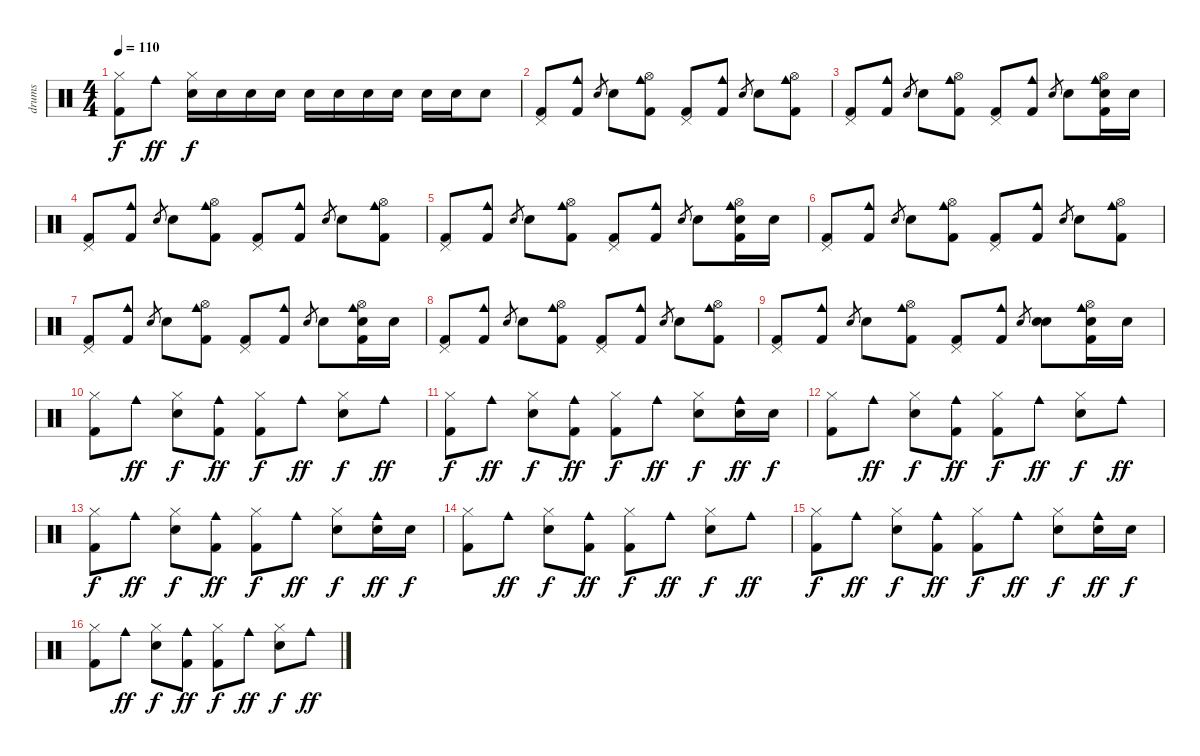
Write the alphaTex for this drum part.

\track ("drums" "drums") {instrument percussion}
\staff {score}
\articulation defaults
\ts (4 4)
\tempo 110
\clef neutral
\ks aminor
("Hi-Hat (closed)" "Kick (hit) 2").8{dy f} "Cowbell medium (hit)".8{dy ff} ("Hi-Hat (closed)" "Snare (hit) 2").16{dy f} "Snare (hit) 2".16 "Snare (hit) 2".16 "Snare (hit) 2".16 "Snare (hit) 2".16 "Snare (hit) 2".16 "Snare (hit) 2".16 "Snare (hit) 2".16 "Snare (hit) 2".16 "Snare (hit) 2".16 "Snare (hit) 2".8 |
("Pedal Hi-Hat (hit)" "Kick (hit) 2").8 ("Cowbell medium (hit)" "Kick (hit) 2").8 "Hand Clap (hit)".8{gr} "Hand Clap (hit)".8 ("Hi-Hat (open)" "Cowbell medium (hit)" "Kick (hit) 2").8 ("Pedal Hi-Hat (hit)" "Kick (hit) 2").8 ("Cowbell medium (hit)" "Kick (hit) 2").8 "Hand Clap (hit)".8{gr} "Hand Clap (hit)".8 ("Hi-Hat (open)" "Cowbell medium (hit)" "Kick (hit) 2").8 |
("Pedal Hi-Hat (hit)" "Kick (hit) 2").8 ("Cowbell medium (hit)" "Kick (hit) 2").8 "Hand Clap (hit)".8{gr} "Hand Clap (hit)".8 ("Hi-Hat (open)" "Cowbell medium (hit)" "Kick (hit) 2").8 ("Pedal Hi-Hat (hit)" "Kick (hit) 2").8 ("Cowbell medium (hit)" "Kick (hit) 2").8 "Hand Clap (hit)".8{gr} "Hand Clap (hit)".8 ("Hi-Hat (open)" "Cowbell medium (hit)" "Snare (hit) 2" "Kick (hit) 2").16 "Snare (hit) 2".16 |
("Pedal Hi-Hat (hit)" "Kick (hit) 2").8 ("Cowbell medium (hit)" "Kick (hit) 2").8 "Hand Clap (hit)".8{gr} "Hand Clap (hit)".8 ("Hi-Hat (open)" "Cowbell medium (hit)" "Kick (hit) 2").8 ("Pedal Hi-Hat (hit)" "Kick (hit) 2").8 ("Cowbell medium (hit)" "Kick (hit) 2").8 "Hand Clap (hit)".8{gr} "Hand Clap (hit)".8 ("Hi-Hat (open)" "Cowbell medium (hit)" "Kick (hit) 2").8 |
("Pedal Hi-Hat (hit)" "Kick (hit) 2").8 ("Cowbell medium (hit)" "Kick (hit) 2").8 "Hand Clap (hit)".8{gr} "Hand Clap (hit)".8 ("Hi-Hat (open)" "Cowbell medium (hit)" "Kick (hit) 2").8 ("Pedal Hi-Hat (hit)" "Kick (hit) 2").8 ("Cowbell medium (hit)" "Kick (hit) 2").8 "Hand Clap (hit)".8{gr} "Hand Clap (hit)".8 ("Hi-Hat (open)" "Cowbell medium (hit)" "Snare (hit) 2" "Kick (hit) 2").16 "Snare (hit) 2".16 |
("Pedal Hi-Hat (hit)" "Kick (hit) 2").8 ("Cowbell medium (hit)" "Kick (hit) 2").8 "Hand Clap (hit)".8{gr} "Hand Clap (hit)".8 ("Hi-Hat (open)" "Cowbell medium (hit)" "Kick (hit) 2").8 ("Pedal Hi-Hat (hit)" "Kick (hit) 2").8 ("Cowbell medium (hit)" "Kick (hit) 2").8 "Hand Clap (hit)".8{gr} "Hand Clap (hit)".8 ("Hi-Hat (open)" "Cowbell medium (hit)" "Kick (hit) 2").8 |
("Pedal Hi-Hat (hit)" "Kick (hit) 2").8 ("Cowbell medium (hit)" "Kick (hit) 2").8 "Hand Clap (hit)".8{gr} "Hand Clap (hit)".8 ("Hi-Hat (open)" "Cowbell medium (hit)" "Kick (hit) 2").8 ("Pedal Hi-Hat (hit)" "Kick (hit) 2").8 ("Cowbell medium (hit)" "Kick (hit) 2").8 "Hand Clap (hit)".8{gr} "Hand Clap (hit)".8 ("Hi-Hat (open)" "Cowbell medium (hit)" "Snare (hit) 2" "Kick (hit) 2").16 "Snare (hit) 2".16 |
("Pedal Hi-Hat (hit)" "Kick (hit) 2").8 ("Cowbell medium (hit)" "Kick (hit) 2").8 "Hand Clap (hit)".8{gr} "Hand Clap (hit)".8 ("Hi-Hat (open)" "Cowbell medium (hit)" "Kick (hit) 2").8 ("Pedal Hi-Hat (hit)" "Kick (hit) 2").8 ("Cowbell medium (hit)" "Kick (hit) 2").8 "Hand Clap (hit)".8{gr} "Hand Clap (hit)".8 ("Hi-Hat (open)" "Cowbell medium (hit)" "Kick (hit) 2").8 |
("Pedal Hi-Hat (hit)" "Kick (hit) 2").8 ("Cowbell medium (hit)" "Kick (hit) 2").8 "Hand Clap (hit)".8{gr} "Hand Clap (hit)".8 ("Hi-Hat (open)" "Cowbell medium (hit)" "Kick (hit) 2").8 ("Pedal Hi-Hat (hit)" "Kick (hit) 2").8 ("Cowbell medium (hit)" "Kick (hit) 2").8 "Hand Clap (hit)".8{gr} ("Hand Clap (hit)" "Snare (hit) 2").8 ("Hi-Hat (open)" "Cowbell medium (hit)" "Snare (hit) 2" "Kick (hit) 2").16 "Snare (hit) 2".16 |
("Hi-Hat (closed)" "Kick (hit) 2").8 "Cowbell medium (hit)".8{dy ff} ("Hi-Hat (closed)" "Snare (hit) 2").8{dy f} ("Cowbell medium (hit)" "Kick (hit) 2").8{dy ff} ("Hi-Hat (closed)" "Kick (hit) 2").8{dy f} "Cowbell medium (hit)".8{dy ff} ("Hi-Hat (closed)" "Snare (hit) 2").8{dy f} "Cowbell medium (hit)".8{dy ff} |
("Hi-Hat (closed)" "Kick (hit) 2").8{dy f} "Cowbell medium (hit)".8{dy ff} ("Hi-Hat (closed)" "Snare (hit) 2").8{dy f} ("Cowbell medium (hit)" "Kick (hit) 2").8{dy ff} ("Hi-Hat (closed)" "Kick (hit) 2").8{dy f} "Cowbell medium (hit)".8{dy ff} ("Hi-Hat (closed)" "Snare (hit) 2").8{dy f} ("Cowbell medium (hit)" "Snare (hit) 2").16{dy ff} "Snare (hit) 2".16{dy f} |
("Hi-Hat (closed)" "Kick (hit) 2").8 "Cowbell medium (hit)".8{dy ff} ("Hi-Hat (closed)" "Snare (hit) 2").8{dy f} ("Cowbell medium (hit)" "Kick (hit) 2").8{dy ff} ("Hi-Hat (closed)" "Kick (hit) 2").8{dy f} "Cowbell medium (hit)".8{dy ff} ("Hi-Hat (closed)" "Snare (hit) 2").8{dy f} "Cowbell medium (hit)".8{dy ff} |
("Hi-Hat (closed)" "Kick (hit) 2").8{dy f} "Cowbell medium (hit)".8{dy ff} ("Hi-Hat (closed)" "Snare (hit) 2").8{dy f} ("Cowbell medium (hit)" "Kick (hit) 2").8{dy ff} ("Hi-Hat (closed)" "Kick (hit) 2").8{dy f} "Cowbell medium (hit)".8{dy ff} ("Hi-Hat (closed)" "Snare (hit) 2").8{dy f} ("Cowbell medium (hit)" "Snare (hit) 2").16{dy ff} "Snare (hit) 2".16{dy f} |
("Hi-Hat (closed)" "Kick (hit) 2").8 "Cowbell medium (hit)".8{dy ff} ("Hi-Hat (closed)" "Snare (hit) 2").8{dy f} ("Cowbell medium (hit)" "Kick (hit) 2").8{dy ff} ("Hi-Hat (closed)" "Kick (hit) 2").8{dy f} "Cowbell medium (hit)".8{dy ff} ("Hi-Hat (closed)" "Snare (hit) 2").8{dy f} "Cowbell medium (hit)".8{dy ff} |
("Hi-Hat (closed)" "Kick (hit) 2").8{dy f} "Cowbell medium (hit)".8{dy ff} ("Hi-Hat (closed)" "Snare (hit) 2").8{dy f} ("Cowbell medium (hit)" "Kick (hit) 2").8{dy ff} ("Hi-Hat (closed)" "Kick (hit) 2").8{dy f} "Cowbell medium (hit)".8{dy ff} ("Hi-Hat (closed)" "Snare (hit) 2").8{dy f} ("Cowbell medium (hit)" "Snare (hit) 2").16{dy ff} "Snare (hit) 2".16{dy f} |
("Hi-Hat (closed)" "Kick (hit) 2").8 "Cowbell medium (hit)".8{dy ff} ("Hi-Hat (closed)" "Snare (hit) 2").8{dy f} ("Cowbell medium (hit)" "Kick (hit) 2").8{dy ff} ("Hi-Hat (closed)" "Kick (hit) 2").8{dy f} "Cowbell medium (hit)".8{dy ff} ("Hi-Hat (closed)" "Snare (hit) 2").8{dy f} "Cowbell medium (hit)".8{dy ff}
